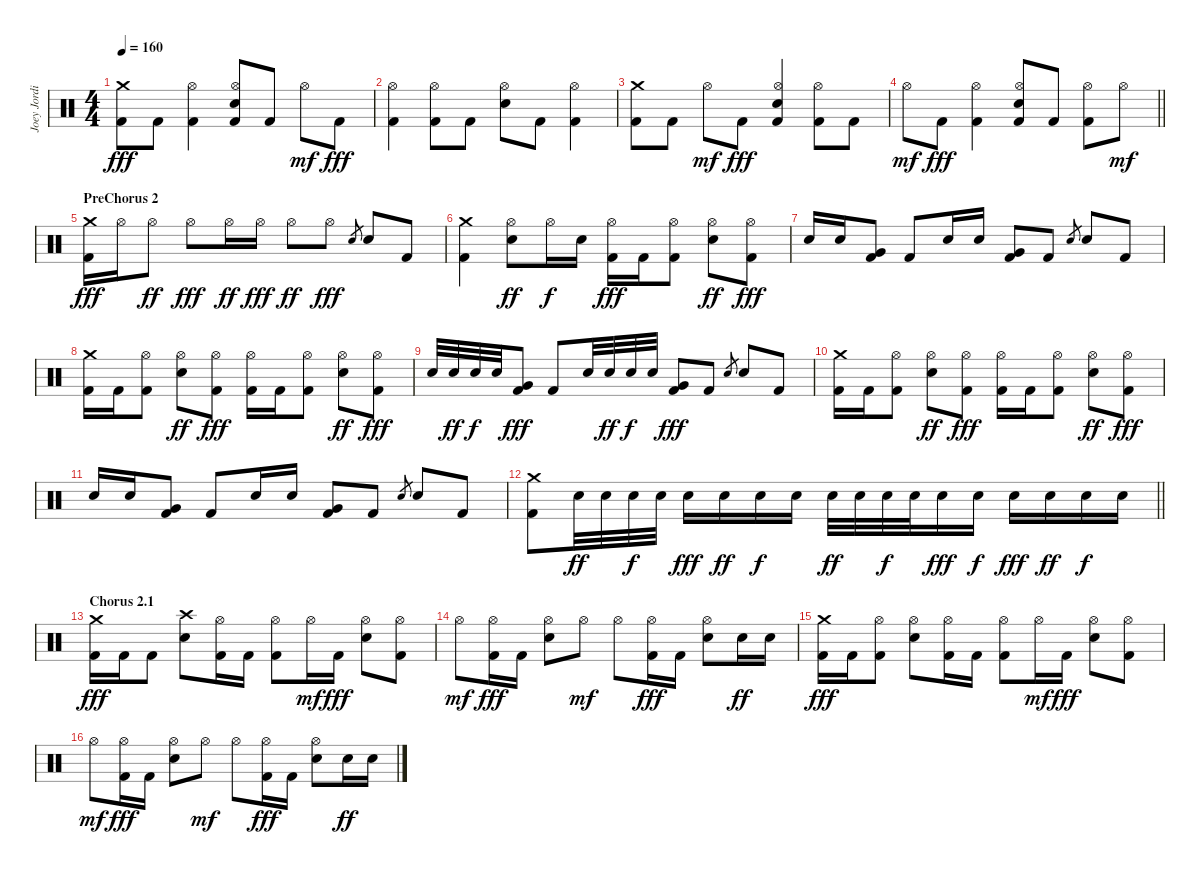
\track ("Joey Jordison" "Joey Jordi") {instrument percussion}
\staff {score}
\articulation defaults
\ts (4 4)
\tempo 160
\clef neutral
\ks c
("Crash medium (hit)" "Kick (hit) 2").8{dy fff} "Kick (hit) 2".8 ("Hi-Hat (open)" "Kick (hit) 2").4 ("Hi-Hat (open)" "Electric Snare (hit)" "Kick (hit) 2").8 "Kick (hit) 2".8 "Hi-Hat (open)".8{dy mf} "Kick (hit) 2".8{dy fff} |
("Hi-Hat (open)" "Kick (hit) 2").4 ("Hi-Hat (open)" "Kick (hit) 2").8 "Kick (hit) 2".8 ("Hi-Hat (open)" "Electric Snare (hit)").8 "Kick (hit) 2".8 ("Hi-Hat (open)" "Kick (hit) 2").4 |
("Crash medium (hit)" "Kick (hit) 2").8 "Kick (hit) 2".8 "Hi-Hat (open)".8{dy mf} "Kick (hit) 2".8{dy fff} ("Hi-Hat (open)" "Electric Snare (hit)" "Kick (hit) 2").4 ("Hi-Hat (open)" "Kick (hit) 2").8 "Kick (hit) 2".8 |
\barLineRight lightlight "Hi-Hat (open)".8{dy mf} "Kick (hit) 2".8{dy fff}
("Hi-Hat (open)" "Kick (hit) 2").4 ("Hi-Hat (open)" "Electric Snare (hit)" "Kick (hit) 2").8 "Kick (hit) 2".8 ("Hi-Hat (open)" "Kick (hit) 2").8 "Hi-Hat (open)".8{dy mf} |
\section ("" "PreChorus 2")
("Crash medium (hit)" "Kick (hit) 2").16{dy fff} "Hi-Hat (open)".16 "Hi-Hat (open)".8{dy ff} "Hi-Hat (open)".8{dy fff} "Hi-Hat (open)".16{dy ff} "Hi-Hat (open)".16{dy fff} "Hi-Hat (open)".8{dy ff} "Hi-Hat (open)".8{dy fff} "Electric Snare (hit)".8{gr} "Electric Snare (hit)".8 "Kick (hit) 2".8 |
("Crash medium (hit)" "Kick (hit) 2").4 ("Hi-Hat (open)" "Electric Snare (hit)").8{dy ff} "Hi-Hat (open)".16{dy f} "Electric Snare (hit)".16 ("Hi-Hat (open)" "Kick (hit) 2").16{dy fff} "Kick (hit) 2".16 ("Hi-Hat (open)" "Kick (hit) 2").8 ("Hi-Hat (open)" "Electric Snare (hit)").8{dy ff} ("Hi-Hat (open)" "Kick (hit) 2").8{dy fff} |
"Electric Snare (hit)".16 "Electric Snare (hit)".16 ("Very Low Tom (hit)" "Kick (hit) 2").8 "Kick (hit) 2".8 "Electric Snare (hit)".16 "Electric Snare (hit)".16 ("Very Low Tom (hit)" "Kick (hit) 2").8 "Kick (hit) 2".8 "Electric Snare (hit)".8{gr} "Electric Snare (hit)".8 "Kick (hit) 2".8 |
("Crash medium (hit)" "Kick (hit) 2").16 "Kick (hit) 2".16 ("Hi-Hat (open)" "Kick (hit) 2").8 ("Hi-Hat (open)" "Electric Snare (hit)").8{dy ff} ("Hi-Hat (open)" "Kick (hit) 2").8{dy fff} ("Hi-Hat (open)" "Kick (hit) 2").16 "Kick (hit) 2".16 ("Hi-Hat (open)" "Kick (hit) 2").8 ("Hi-Hat (open)" "Electric Snare (hit)").8{dy ff} ("Hi-Hat (open)" "Kick (hit) 2").8{dy fff} |
"Electric Snare (hit)".32 "Electric Snare (hit)".32{dy ff} "Electric Snare (hit)".32{dy f} "Electric Snare (hit)".32 ("Very Low Tom (hit)" "Kick (hit) 2").8{dy fff} "Kick (hit) 2".8 "Electric Snare (hit)".32 "Electric Snare (hit)".32{dy ff} "Electric Snare (hit)".32{dy f} "Electric Snare (hit)".32 ("Very Low Tom (hit)" "Kick (hit) 2").8{dy fff} "Kick (hit) 2".8 "Electric Snare (hit)".8{gr} "Electric Snare (hit)".8 "Kick (hit) 2".8 |
("Crash medium (hit)" "Kick (hit) 2").16 "Kick (hit) 2".16 ("Hi-Hat (open)" "Kick (hit) 2").8 ("Hi-Hat (open)" "Electric Snare (hit)").8{dy ff} ("Hi-Hat (open)" "Kick (hit) 2").8{dy fff} ("Hi-Hat (open)" "Kick (hit) 2").16 "Kick (hit) 2".16 ("Hi-Hat (open)" "Kick (hit) 2").8 ("Hi-Hat (open)" "Electric Snare (hit)").8{dy ff} ("Hi-Hat (open)" "Kick (hit) 2").8{dy fff} |
"Electric Snare (hit)".16 "Electric Snare (hit)".16 ("Very Low Tom (hit)" "Kick (hit) 2").8 "Kick (hit) 2".8 "Electric Snare (hit)".16 "Electric Snare (hit)".16 ("Very Low Tom (hit)" "Kick (hit) 2").8 "Kick (hit) 2".8 "Electric Snare (hit)".8{gr} "Electric Snare (hit)".8 "Kick (hit) 2".8 |
\barLineRight lightlight
("Crash medium (hit)" "Kick (hit) 2").8 "Electric Snare (hit)".32{dy ff} "Electric Snare (hit)".32 "Electric Snare (hit)".32{dy f} "Electric Snare (hit)".32 "Electric Snare (hit)".16{dy fff} "Electric Snare (hit)".16{dy ff} "Electric Snare (hit)".16{dy f} "Electric Snare (hit)".16 "Electric Snare (hit)".32{dy ff} "Electric Snare (hit)".32 "Electric Snare (hit)".32{dy f} "Electric Snare (hit)".32 "Electric Snare (hit)".16{dy fff} "Electric Snare (hit)".16{dy f} "Electric Snare (hit)".16{dy fff} "Electric Snare (hit)".16{dy ff} "Electric Snare (hit)".16{dy f} "Electric Snare (hit)".16 |
\section ("" "Chorus 2.1")
("Crash medium (hit)" "Kick (hit) 2").16{dy fff} "Kick (hit) 2".16 "Kick (hit) 2".8 ("Crash high (hit)" "Electric Snare (hit)").8 ("Hi-Hat (open)" "Kick (hit) 2").16 "Kick (hit) 2".16 ("Hi-Hat (open)" "Kick (hit) 2").8 "Hi-Hat (open)".16{dy mf} "Kick (hit) 2".16{dy fff} ("Hi-Hat (open)" "Electric Snare (hit)").8 ("Hi-Hat (open)" "Kick (hit) 2").8 |
"Hi-Hat (open)".8{dy mf} ("Hi-Hat (open)" "Kick (hit) 2").16{dy fff} "Kick (hit) 2".16 ("Hi-Hat (open)" "Electric Snare (hit)").8 "Hi-Hat (open)".8{dy mf} "Hi-Hat (open)".8 ("Hi-Hat (open)" "Kick (hit) 2").16{dy fff} "Kick (hit) 2".16 ("Hi-Hat (open)" "Electric Snare (hit)").8 "Electric Snare (hit)".16{dy ff} "Electric Snare (hit)".16 |
("Crash medium (hit)" "Kick (hit) 2").16{dy fff} "Kick (hit) 2".16 ("Hi-Hat (open)" "Kick (hit) 2").8 ("Hi-Hat (open)" "Electric Snare (hit)").8 ("Hi-Hat (open)" "Kick (hit) 2").16 "Kick (hit) 2".16 ("Hi-Hat (open)" "Kick (hit) 2").8 "Hi-Hat (open)".16{dy mf} "Kick (hit) 2".16{dy fff} ("Hi-Hat (open)" "Electric Snare (hit)").8 ("Hi-Hat (open)" "Kick (hit) 2").8 |
"Hi-Hat (open)".8{dy mf} ("Hi-Hat (open)" "Kick (hit) 2").16{dy fff} "Kick (hit) 2".16 ("Hi-Hat (open)" "Electric Snare (hit)").8 "Hi-Hat (open)".8{dy mf} "Hi-Hat (open)".8 ("Hi-Hat (open)" "Kick (hit) 2").16{dy fff} "Kick (hit) 2".16 ("Hi-Hat (open)" "Electric Snare (hit)").8 "Electric Snare (hit)".16{dy ff} "Electric Snare (hit)".16
